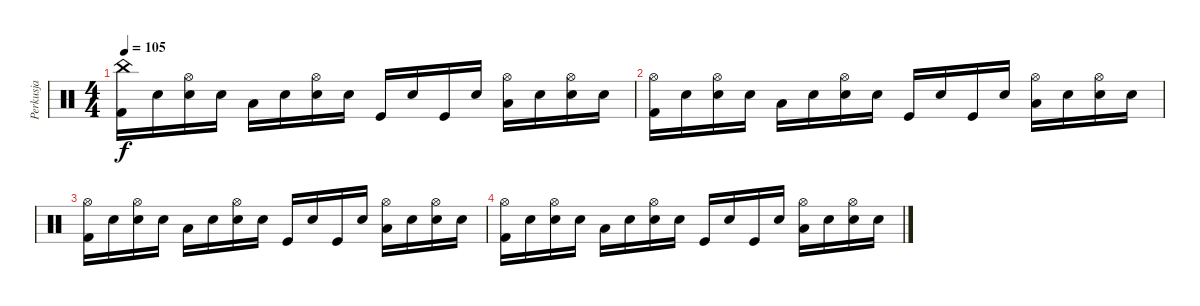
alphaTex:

\track ("Perkusja" "Perkusja") {instrument percussion}
\staff {score}
\articulation defaults
\ts (4 4)
\tempo 105
\clef neutral
\ks c
("China (hit)" "Kick (hit) 2").16{dy f} "Snare (hit)".16 ("Hi-Hat (open)" "Snare (hit)").16 "Snare (hit)".16 "Low Tom (hit)".16 "Snare (hit)".16 ("Hi-Hat (open)" "Snare (hit)").16 "Snare (hit)".16 "Kick (hit)".16 "Snare (hit)".16 "Kick (hit)".16 "Snare (hit)".16 ("Hi-Hat (open)" "Low Tom (hit)").16 "Snare (hit)".16 ("Hi-Hat (open)" "Snare (hit)").16 "Snare (hit)".16 |
("Hi-Hat (open)" "Kick (hit) 2").16 "Snare (hit)".16 ("Hi-Hat (open)" "Snare (hit)").16 "Snare (hit)".16 "Low Tom (hit)".16 "Snare (hit)".16 ("Hi-Hat (open)" "Snare (hit)").16 "Snare (hit)".16 "Kick (hit)".16 "Snare (hit)".16 "Kick (hit)".16 "Snare (hit)".16 ("Hi-Hat (open)" "Low Tom (hit)").16 "Snare (hit)".16 ("Hi-Hat (open)" "Snare (hit)").16 "Snare (hit)".16 |
("Hi-Hat (open)" "Kick (hit) 2").16 "Snare (hit)".16 ("Hi-Hat (open)" "Snare (hit)").16 "Snare (hit)".16 "Low Tom (hit)".16 "Snare (hit)".16 ("Hi-Hat (open)" "Snare (hit)").16 "Snare (hit)".16 "Kick (hit)".16 "Snare (hit)".16 "Kick (hit)".16 "Snare (hit)".16 ("Hi-Hat (open)" "Low Tom (hit)").16 "Snare (hit)".16 ("Hi-Hat (open)" "Snare (hit)").16 "Snare (hit)".16 |
("Hi-Hat (open)" "Kick (hit) 2").16 "Snare (hit)".16 ("Hi-Hat (open)" "Snare (hit)").16 "Snare (hit)".16 "Low Tom (hit)".16 "Snare (hit)".16 ("Hi-Hat (open)" "Snare (hit)").16 "Snare (hit)".16 "Kick (hit)".16 "Snare (hit)".16 "Kick (hit)".16 "Snare (hit)".16 ("Hi-Hat (open)" "Low Tom (hit)").16 "Snare (hit)".16 ("Hi-Hat (open)" "Snare (hit)").16 "Snare (hit)".16
